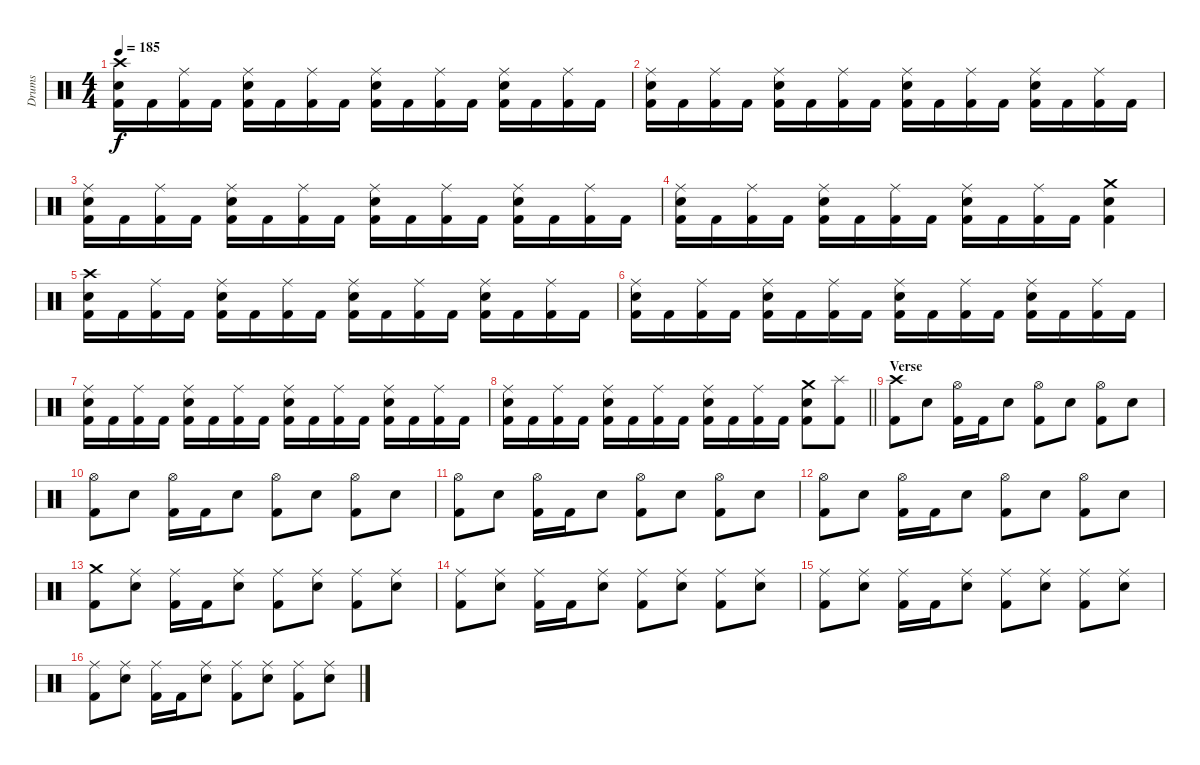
\track ("Drums" "Drums") {instrument percussion}
\staff {score}
\articulation defaults
\ts (4 4)
\tempo 185
\clef neutral
\ks c
("Crash high (hit)" "Electric Snare (hit)" "Kick (hit) 2").16{dy f} "Kick (hit) 2".16 ("Ride (middle)" "Kick (hit) 2").16 "Kick (hit) 2".16 ("Ride (middle)" "Electric Snare (hit)" "Kick (hit) 2").16 "Kick (hit) 2".16 ("Ride (middle)" "Kick (hit) 2").16 "Kick (hit) 2".16 ("Ride (middle)" "Electric Snare (hit)" "Kick (hit) 2").16 "Kick (hit) 2".16 ("Ride (middle)" "Kick (hit) 2").16 "Kick (hit) 2".16 ("Ride (middle)" "Electric Snare (hit)" "Kick (hit) 2").16 "Kick (hit) 2".16 ("Ride (middle)" "Kick (hit) 2").16 "Kick (hit) 2".16 |
("Ride (middle)" "Electric Snare (hit)" "Kick (hit) 2").16 "Kick (hit) 2".16 ("Ride (middle)" "Kick (hit) 2").16 "Kick (hit) 2".16 ("Ride (middle)" "Electric Snare (hit)" "Kick (hit) 2").16 "Kick (hit) 2".16 ("Ride (middle)" "Kick (hit) 2").16 "Kick (hit) 2".16 ("Ride (middle)" "Electric Snare (hit)" "Kick (hit) 2").16 "Kick (hit) 2".16 ("Ride (middle)" "Kick (hit) 2").16 "Kick (hit) 2".16 ("Ride (middle)" "Electric Snare (hit)" "Kick (hit) 2").16 "Kick (hit) 2".16 ("Ride (middle)" "Kick (hit) 2").16 "Kick (hit) 2".16 |
("Ride (middle)" "Electric Snare (hit)" "Kick (hit) 2").16 "Kick (hit) 2".16 ("Ride (middle)" "Kick (hit) 2").16 "Kick (hit) 2".16 ("Ride (middle)" "Electric Snare (hit)" "Kick (hit) 2").16 "Kick (hit) 2".16 ("Ride (middle)" "Kick (hit) 2").16 "Kick (hit) 2".16 ("Ride (middle)" "Electric Snare (hit)" "Kick (hit) 2").16 "Kick (hit) 2".16 ("Ride (middle)" "Kick (hit) 2").16 "Kick (hit) 2".16 ("Ride (middle)" "Electric Snare (hit)" "Kick (hit) 2").16 "Kick (hit) 2".16 ("Ride (middle)" "Kick (hit) 2").16 "Kick (hit) 2".16 |
("Ride (middle)" "Electric Snare (hit)" "Kick (hit) 2").16 "Kick (hit) 2".16 ("Ride (middle)" "Kick (hit) 2").16 "Kick (hit) 2".16 ("Ride (middle)" "Electric Snare (hit)" "Kick (hit) 2").16 "Kick (hit) 2".16 ("Ride (middle)" "Kick (hit) 2").16 "Kick (hit) 2".16 ("Ride (middle)" "Electric Snare (hit)" "Kick (hit) 2").16 "Kick (hit) 2".16 ("Ride (middle)" "Kick (hit) 2").16 "Kick (hit) 2".16 ("Crash medium (hit)" "Electric Snare (hit)" "Kick (hit) 2").4 |
("Crash high (hit)" "Electric Snare (hit)" "Kick (hit) 2").16 "Kick (hit) 2".16 ("Ride (middle)" "Kick (hit) 2").16 "Kick (hit) 2".16 ("Ride (middle)" "Electric Snare (hit)" "Kick (hit) 2").16 "Kick (hit) 2".16 ("Ride (middle)" "Kick (hit) 2").16 "Kick (hit) 2".16 ("Ride (middle)" "Electric Snare (hit)" "Kick (hit) 2").16 "Kick (hit) 2".16 ("Ride (middle)" "Kick (hit) 2").16 "Kick (hit) 2".16 ("Ride (middle)" "Electric Snare (hit)" "Kick (hit) 2").16 "Kick (hit) 2".16 ("Ride (middle)" "Kick (hit) 2").16 "Kick (hit) 2".16 |
("Ride (middle)" "Electric Snare (hit)" "Kick (hit) 2").16 "Kick (hit) 2".16 ("Ride (middle)" "Kick (hit) 2").16 "Kick (hit) 2".16 ("Ride (middle)" "Electric Snare (hit)" "Kick (hit) 2").16 "Kick (hit) 2".16 ("Ride (middle)" "Kick (hit) 2").16 "Kick (hit) 2".16 ("Ride (middle)" "Electric Snare (hit)" "Kick (hit) 2").16 "Kick (hit) 2".16 ("Ride (middle)" "Kick (hit) 2").16 "Kick (hit) 2".16 ("Ride (middle)" "Electric Snare (hit)" "Kick (hit) 2").16 "Kick (hit) 2".16 ("Ride (middle)" "Kick (hit) 2").16 "Kick (hit) 2".16 |
("Ride (middle)" "Electric Snare (hit)" "Kick (hit) 2").16 "Kick (hit) 2".16 ("Ride (middle)" "Kick (hit) 2").16 "Kick (hit) 2".16 ("Ride (middle)" "Electric Snare (hit)" "Kick (hit) 2").16 "Kick (hit) 2".16 ("Ride (middle)" "Kick (hit) 2").16 "Kick (hit) 2".16 ("Ride (middle)" "Electric Snare (hit)" "Kick (hit) 2").16 "Kick (hit) 2".16 ("Ride (middle)" "Kick (hit) 2").16 "Kick (hit) 2".16 ("Ride (middle)" "Electric Snare (hit)" "Kick (hit) 2").16 "Kick (hit) 2".16 ("Ride (middle)" "Kick (hit) 2").16 "Kick (hit) 2".16 |
\barLineRight lightlight
("Ride (middle)" "Electric Snare (hit)" "Kick (hit) 2").16 "Kick (hit) 2".16 ("Ride (middle)" "Kick (hit) 2").16 "Kick (hit) 2".16 ("Ride (middle)" "Electric Snare (hit)" "Kick (hit) 2").16 "Kick (hit) 2".16 ("Ride (middle)" "Kick (hit) 2").16 "Kick (hit) 2".16 ("Ride (middle)" "Electric Snare (hit)" "Kick (hit) 2").16 "Kick (hit) 2".16 ("Ride (middle)" "Kick (hit) 2").16 "Kick (hit) 2".16 ("Crash medium (hit)" "Electric Snare (hit)" "Kick (hit) 2").8 ("Splash (hit)" "Kick (hit) 2").8 |
\section ("" "Verse")
("Crash high (hit)" "Kick (hit) 2").8 "Electric Snare (hit)".8 ("Hi-Hat (open)" "Kick (hit) 2").16 "Kick (hit) 2".16 "Electric Snare (hit)".8 ("Hi-Hat (open)" "Kick (hit) 2").8 "Electric Snare (hit)".8 ("Hi-Hat (open)" "Kick (hit) 2").8 "Electric Snare (hit)".8 |
("Hi-Hat (open)" "Kick (hit) 2").8 "Electric Snare (hit)".8 ("Hi-Hat (open)" "Kick (hit) 2").16 "Kick (hit) 2".16 "Electric Snare (hit)".8 ("Hi-Hat (open)" "Kick (hit) 2").8 "Electric Snare (hit)".8 ("Hi-Hat (open)" "Kick (hit) 2").8 "Electric Snare (hit)".8 |
("Hi-Hat (open)" "Kick (hit) 2").8 "Electric Snare (hit)".8 ("Hi-Hat (open)" "Kick (hit) 2").16 "Kick (hit) 2".16 "Electric Snare (hit)".8 ("Hi-Hat (open)" "Kick (hit) 2").8 "Electric Snare (hit)".8 ("Hi-Hat (open)" "Kick (hit) 2").8 "Electric Snare (hit)".8 |
("Hi-Hat (open)" "Kick (hit) 2").8 "Electric Snare (hit)".8 ("Hi-Hat (open)" "Kick (hit) 2").16 "Kick (hit) 2".16 "Electric Snare (hit)".8 ("Hi-Hat (open)" "Kick (hit) 2").8 "Electric Snare (hit)".8 ("Hi-Hat (open)" "Kick (hit) 2").8 "Electric Snare (hit)".8 |
("Crash medium (hit)" "Kick (hit) 2").8 ("Ride (middle)" "Electric Snare (hit)").8 ("Ride (middle)" "Kick (hit) 2").16 "Kick (hit) 2".16 ("Ride (middle)" "Electric Snare (hit)").8 ("Ride (middle)" "Kick (hit) 2").8 ("Ride (middle)" "Electric Snare (hit)").8 ("Ride (middle)" "Kick (hit) 2").8 ("Ride (middle)" "Electric Snare (hit)").8 |
("Ride (middle)" "Kick (hit) 2").8 ("Ride (middle)" "Electric Snare (hit)").8 ("Ride (middle)" "Kick (hit) 2").16 "Kick (hit) 2".16 ("Ride (middle)" "Electric Snare (hit)").8 ("Ride (middle)" "Kick (hit) 2").8 ("Ride (middle)" "Electric Snare (hit)").8 ("Ride (middle)" "Kick (hit) 2").8 ("Ride (middle)" "Electric Snare (hit)").8 |
("Ride (middle)" "Kick (hit) 2").8 ("Ride (middle)" "Electric Snare (hit)").8 ("Ride (middle)" "Kick (hit) 2").16 "Kick (hit) 2".16 ("Ride (middle)" "Electric Snare (hit)").8 ("Ride (middle)" "Kick (hit) 2").8 ("Ride (middle)" "Electric Snare (hit)").8 ("Ride (middle)" "Kick (hit) 2").8 ("Ride (middle)" "Electric Snare (hit)").8 |
("Ride (middle)" "Kick (hit) 2").8 ("Ride (middle)" "Electric Snare (hit)").8 ("Ride (middle)" "Kick (hit) 2").16 "Kick (hit) 2".16 ("Ride (middle)" "Electric Snare (hit)").8 ("Ride (middle)" "Kick (hit) 2").8 ("Ride (middle)" "Electric Snare (hit)").8 ("Ride (middle)" "Kick (hit) 2").8 ("Ride (middle)" "Electric Snare (hit)").8
